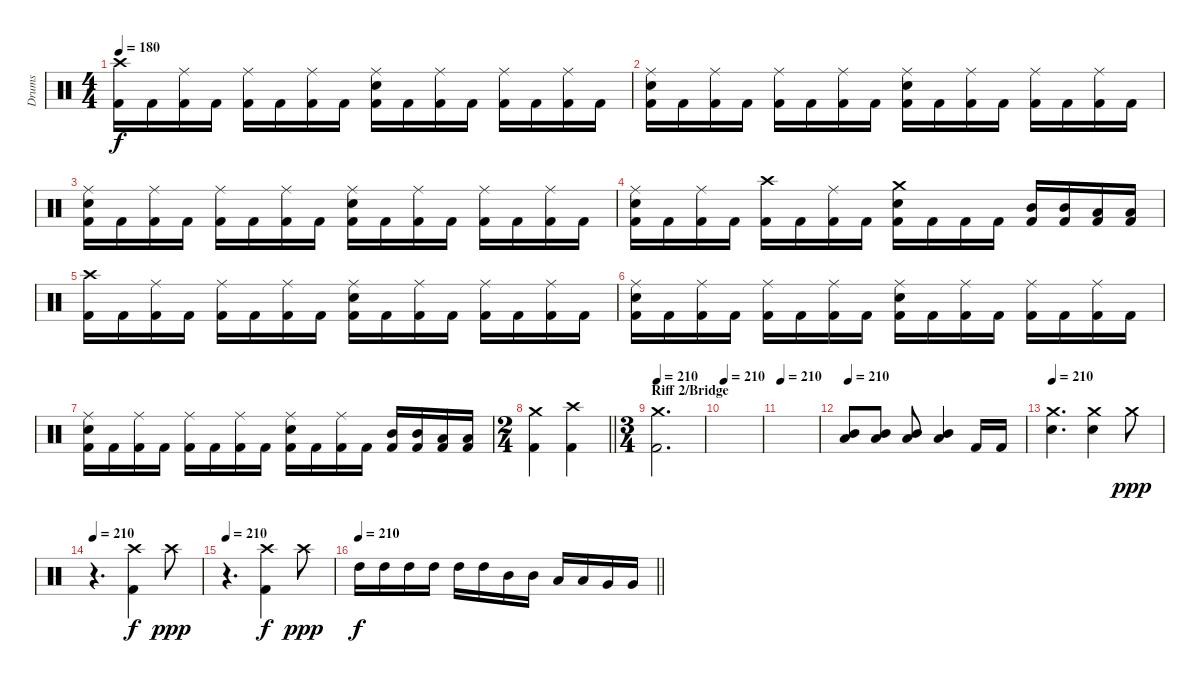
\track ("Drums" "Drums") {instrument percussion}
\staff {score}
\articulation defaults
\ts (4 4)
\tempo 180
\clef neutral
\ks c
("Crash high (hit)" "Kick (hit) 2").16{dy f} "Kick (hit) 2".16 ("Ride (middle)" "Kick (hit) 2").16 "Kick (hit) 2".16 ("Ride (middle)" "Kick (hit) 2").16 "Kick (hit) 2".16 ("Ride (middle)" "Kick (hit) 2").16 "Kick (hit) 2".16 ("Ride (middle)" "Electric Snare (hit)" "Kick (hit) 2").16 "Kick (hit) 2".16 ("Ride (middle)" "Kick (hit) 2").16 "Kick (hit) 2".16 ("Ride (middle)" "Kick (hit) 2").16 "Kick (hit) 2".16 ("Ride (middle)" "Kick (hit) 2").16 "Kick (hit) 2".16 |
("Ride (middle)" "Electric Snare (hit)" "Kick (hit) 2").16 "Kick (hit) 2".16 ("Ride (middle)" "Kick (hit) 2").16 "Kick (hit) 2".16 ("Ride (middle)" "Kick (hit) 2").16 "Kick (hit) 2".16 ("Ride (middle)" "Kick (hit) 2").16 "Kick (hit) 2".16 ("Ride (middle)" "Electric Snare (hit)" "Kick (hit) 2").16 "Kick (hit) 2".16 ("Ride (middle)" "Kick (hit) 2").16 "Kick (hit) 2".16 ("Ride (middle)" "Kick (hit) 2").16 "Kick (hit) 2".16 ("Ride (middle)" "Kick (hit) 2").16 "Kick (hit) 2".16 |
("Ride (middle)" "Electric Snare (hit)" "Kick (hit) 2").16 "Kick (hit) 2".16 ("Ride (middle)" "Kick (hit) 2").16 "Kick (hit) 2".16 ("Ride (middle)" "Kick (hit) 2").16 "Kick (hit) 2".16 ("Ride (middle)" "Kick (hit) 2").16 "Kick (hit) 2".16 ("Ride (middle)" "Electric Snare (hit)" "Kick (hit) 2").16 "Kick (hit) 2".16 ("Ride (middle)" "Kick (hit) 2").16 "Kick (hit) 2".16 ("Ride (middle)" "Kick (hit) 2").16 "Kick (hit) 2".16 ("Ride (middle)" "Kick (hit) 2").16 "Kick (hit) 2".16 |
("Ride (middle)" "Electric Snare (hit)" "Kick (hit) 2").16 "Kick (hit) 2".16 ("Ride (middle)" "Kick (hit) 2").16 "Kick (hit) 2".16 ("Crash high (hit)" "Kick (hit) 2").16 "Kick (hit) 2".16 ("Ride (middle)" "Kick (hit) 2").16 "Kick (hit) 2".16 ("Crash medium (hit)" "Electric Snare (hit)" "Kick (hit) 2").16 "Kick (hit) 2".16 "Kick (hit) 2".16 "Kick (hit) 2".16 ("Mid Tom (hit)" "Kick (hit) 2").16 ("Mid Tom (hit)" "Kick (hit) 2").16 ("Low Tom (hit)" "Kick (hit) 2").16 ("Low Tom (hit)" "Kick (hit) 2").16 |
("Crash high (hit)" "Kick (hit) 2").16 "Kick (hit) 2".16 ("Ride (middle)" "Kick (hit) 2").16 "Kick (hit) 2".16 ("Ride (middle)" "Kick (hit) 2").16 "Kick (hit) 2".16 ("Ride (middle)" "Kick (hit) 2").16 "Kick (hit) 2".16 ("Ride (middle)" "Electric Snare (hit)" "Kick (hit) 2").16 "Kick (hit) 2".16 ("Ride (middle)" "Kick (hit) 2").16 "Kick (hit) 2".16 ("Ride (middle)" "Kick (hit) 2").16 "Kick (hit) 2".16 ("Ride (middle)" "Kick (hit) 2").16 "Kick (hit) 2".16 |
("Ride (middle)" "Electric Snare (hit)" "Kick (hit) 2").16 "Kick (hit) 2".16 ("Ride (middle)" "Kick (hit) 2").16 "Kick (hit) 2".16 ("Ride (middle)" "Kick (hit) 2").16 "Kick (hit) 2".16 ("Ride (middle)" "Kick (hit) 2").16 "Kick (hit) 2".16 ("Ride (middle)" "Electric Snare (hit)" "Kick (hit) 2").16 "Kick (hit) 2".16 ("Ride (middle)" "Kick (hit) 2").16 "Kick (hit) 2".16 ("Ride (middle)" "Kick (hit) 2").16 "Kick (hit) 2".16 ("Ride (middle)" "Kick (hit) 2").16 "Kick (hit) 2".16 |
("Ride (middle)" "Electric Snare (hit)" "Kick (hit) 2").16 "Kick (hit) 2".16 ("Ride (middle)" "Kick (hit) 2").16 "Kick (hit) 2".16 ("Ride (middle)" "Kick (hit) 2").16 "Kick (hit) 2".16 ("Ride (middle)" "Kick (hit) 2").16 "Kick (hit) 2".16 ("Ride (middle)" "Electric Snare (hit)" "Kick (hit) 2").16 "Kick (hit) 2".16 ("Ride (middle)" "Kick (hit) 2").16 "Kick (hit) 2".16 ("Mid Tom (hit)" "Kick (hit) 2").16 ("Mid Tom (hit)" "Kick (hit) 2").16 ("Low Tom (hit)" "Kick (hit) 2").16 ("Low Tom (hit)" "Kick (hit) 2").16 |
\ts (2 4)
\barLineRight lightlight
("Crash medium (hit)" "Kick (hit) 2").4 ("Crash high (hit)" "Kick (hit) 2").4 |
\ts (3 4)
\section ("" "Riff 2/Bridge")
\tempo 210
("Crash medium (hit)" "Kick (hit) 2").2{d} |
\tempo 210
|
\tempo 210
|
\tempo 210
("Mid Tom (hit)" "Low Tom (hit)").8 ("Mid Tom (hit)" "Low Tom (hit)").8 ("Mid Tom (hit)" "Low Tom (hit)").8 ("Mid Tom (hit)" "Low Tom (hit)").4 "Kick (hit) 2".16 "Kick (hit) 2".16 |
\tempo 210
("Crash medium (hit)" "Electric Snare (hit)").4{d} ("Crash medium (hit)" "Electric Snare (hit)").4 "Crash medium (hit)".8{dy ppp} |
\tempo 210
r.4{d} ("Crash high (hit)" "Kick (hit) 2").4{dy f} "Crash high (hit)".8{dy ppp} |
\tempo 210
r.4{d} ("Crash high (hit)" "Kick (hit) 2").4{dy f} "Crash high (hit)".8{dy ppp} |
\tempo 210
\barLineRight lightlight "High Tom (hit)".16{dy f} "High Tom (hit)".16 "High Tom (hit)".16 "High Tom (hit)".16 "High Tom (hit)".16 "High Tom (hit)".16 "Mid Tom (hit)".16 "Mid Tom (hit)".16 "Low Tom (hit)".16 "Low Tom (hit)".16 "Very Low Tom (hit)".16 "Very Low Tom (hit)".16
